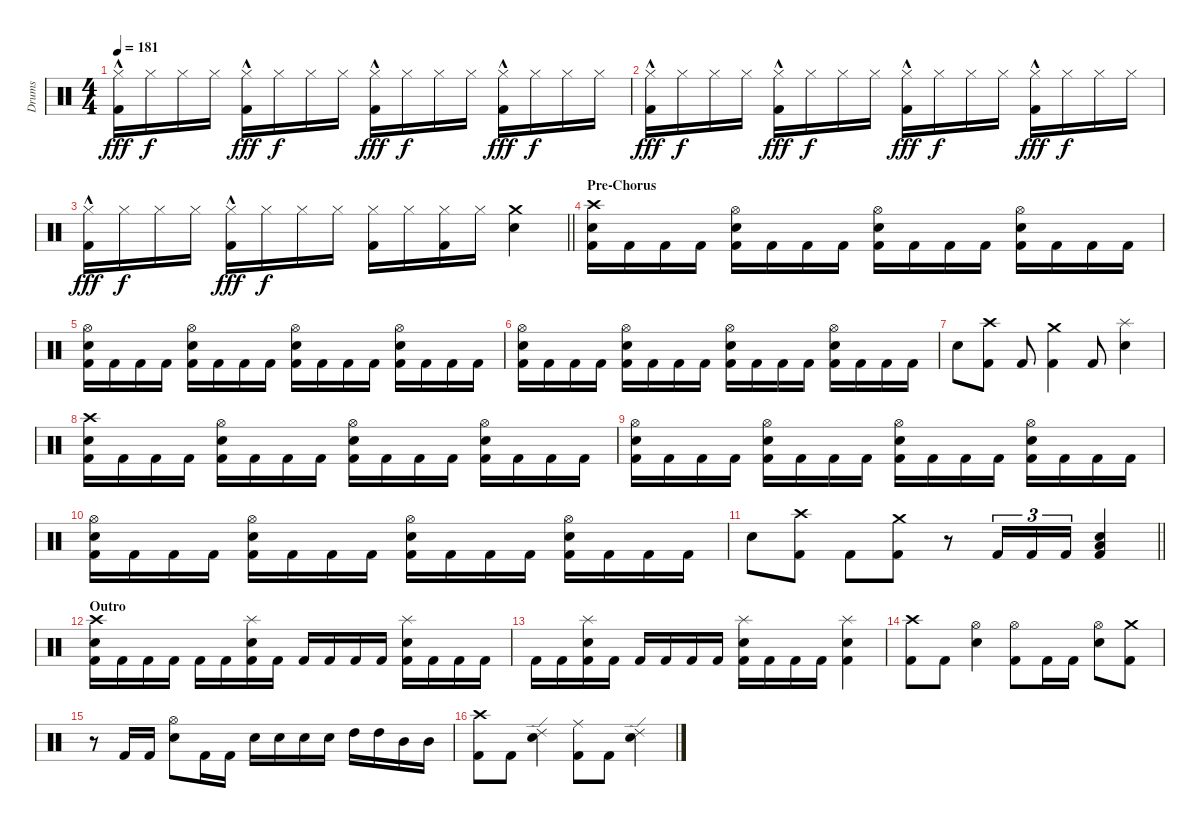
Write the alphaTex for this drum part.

\track ("Drums" "Drums") {instrument percussion}
\staff {score}
\articulation defaults
\ts (4 4)
\tempo 181
\clef neutral
\ks c
("Hi-Hat (closed)"{hac} "Kick (hit) 2").16{dy fff} "Hi-Hat (closed)".16{dy f} "Hi-Hat (closed)".16 "Hi-Hat (closed)".16 ("Hi-Hat (closed)"{hac} "Kick (hit) 2").16{dy fff} "Hi-Hat (closed)".16{dy f} "Hi-Hat (closed)".16 "Hi-Hat (closed)".16 ("Hi-Hat (closed)"{hac} "Kick (hit) 2").16{dy fff} "Hi-Hat (closed)".16{dy f} "Hi-Hat (closed)".16 "Hi-Hat (closed)".16 ("Hi-Hat (closed)"{hac} "Kick (hit) 2").16{dy fff} "Hi-Hat (closed)".16{dy f} "Hi-Hat (closed)".16 "Hi-Hat (closed)".16 |
("Hi-Hat (closed)"{hac} "Kick (hit) 2").16{dy fff} "Hi-Hat (closed)".16{dy f} "Hi-Hat (closed)".16 "Hi-Hat (closed)".16 ("Hi-Hat (closed)"{hac} "Kick (hit) 2").16{dy fff} "Hi-Hat (closed)".16{dy f} "Hi-Hat (closed)".16 "Hi-Hat (closed)".16 ("Hi-Hat (closed)"{hac} "Kick (hit) 2").16{dy fff} "Hi-Hat (closed)".16{dy f} "Hi-Hat (closed)".16 "Hi-Hat (closed)".16 ("Hi-Hat (closed)"{hac} "Kick (hit) 2").16{dy fff} "Hi-Hat (closed)".16{dy f} "Hi-Hat (closed)".16 "Hi-Hat (closed)".16 |
\barLineRight lightlight
("Hi-Hat (closed)"{hac} "Kick (hit) 2").16{dy fff} "Hi-Hat (closed)".16{dy f} "Hi-Hat (closed)".16 "Hi-Hat (closed)".16 ("Hi-Hat (closed)"{hac} "Kick (hit) 2").16{dy fff} "Hi-Hat (closed)".16{dy f} "Hi-Hat (closed)".16 "Hi-Hat (closed)".16 ("Hi-Hat (closed)" "Kick (hit) 2").16 "Hi-Hat (closed)".16 ("Hi-Hat (closed)" "Kick (hit) 2").16 "Hi-Hat (closed)".16 ("Crash medium (hit)" "Snare (hit) 2").4 |
\section ("" "Pre-Chorus")
("Crash high (hit)" "Snare (hit) 2" "Kick (hit) 2").16 "Kick (hit) 2".16 "Kick (hit) 2".16 "Kick (hit) 2".16 ("Hi-Hat (open)" "Snare (hit) 2" "Kick (hit) 2").16 "Kick (hit) 2".16 "Kick (hit) 2".16 "Kick (hit) 2".16 ("Hi-Hat (open)" "Snare (hit) 2" "Kick (hit) 2").16 "Kick (hit) 2".16 "Kick (hit) 2".16 "Kick (hit) 2".16 ("Hi-Hat (open)" "Snare (hit) 2" "Kick (hit) 2").16 "Kick (hit) 2".16 "Kick (hit) 2".16 "Kick (hit) 2".16 |
("Hi-Hat (open)" "Snare (hit) 2" "Kick (hit) 2").16 "Kick (hit) 2".16 "Kick (hit) 2".16 "Kick (hit) 2".16 ("Hi-Hat (open)" "Snare (hit) 2" "Kick (hit) 2").16 "Kick (hit) 2".16 "Kick (hit) 2".16 "Kick (hit) 2".16 ("Hi-Hat (open)" "Snare (hit) 2" "Kick (hit) 2").16 "Kick (hit) 2".16 "Kick (hit) 2".16 "Kick (hit) 2".16 ("Hi-Hat (open)" "Snare (hit) 2" "Kick (hit) 2").16 "Kick (hit) 2".16 "Kick (hit) 2".16 "Kick (hit) 2".16 |
("Hi-Hat (open)" "Snare (hit) 2" "Kick (hit) 2").16 "Kick (hit) 2".16 "Kick (hit) 2".16 "Kick (hit) 2".16 ("Hi-Hat (open)" "Snare (hit) 2" "Kick (hit) 2").16 "Kick (hit) 2".16 "Kick (hit) 2".16 "Kick (hit) 2".16 ("Hi-Hat (open)" "Snare (hit) 2" "Kick (hit) 2").16 "Kick (hit) 2".16 "Kick (hit) 2".16 "Kick (hit) 2".16 ("Hi-Hat (open)" "Snare (hit) 2" "Kick (hit) 2").16 "Kick (hit) 2".16 "Kick (hit) 2".16 "Kick (hit) 2".16 |
"Snare (hit) 2".8 ("Crash high (hit)" "Kick (hit) 2").8 "Kick (hit) 2".8 ("Crash medium (hit)" "Kick (hit) 2").4 "Kick (hit) 2".8 ("Splash (hit)" "Snare (hit) 2").4 |
("Crash high (hit)" "Snare (hit) 2" "Kick (hit) 2").16 "Kick (hit) 2".16 "Kick (hit) 2".16 "Kick (hit) 2".16 ("Hi-Hat (open)" "Snare (hit) 2" "Kick (hit) 2").16 "Kick (hit) 2".16 "Kick (hit) 2".16 "Kick (hit) 2".16 ("Hi-Hat (open)" "Snare (hit) 2" "Kick (hit) 2").16 "Kick (hit) 2".16 "Kick (hit) 2".16 "Kick (hit) 2".16 ("Hi-Hat (open)" "Snare (hit) 2" "Kick (hit) 2").16 "Kick (hit) 2".16 "Kick (hit) 2".16 "Kick (hit) 2".16 |
("Hi-Hat (open)" "Snare (hit) 2" "Kick (hit) 2").16 "Kick (hit) 2".16 "Kick (hit) 2".16 "Kick (hit) 2".16 ("Hi-Hat (open)" "Snare (hit) 2" "Kick (hit) 2").16 "Kick (hit) 2".16 "Kick (hit) 2".16 "Kick (hit) 2".16 ("Hi-Hat (open)" "Snare (hit) 2" "Kick (hit) 2").16 "Kick (hit) 2".16 "Kick (hit) 2".16 "Kick (hit) 2".16 ("Hi-Hat (open)" "Snare (hit) 2" "Kick (hit) 2").16 "Kick (hit) 2".16 "Kick (hit) 2".16 "Kick (hit) 2".16 |
("Hi-Hat (open)" "Snare (hit) 2" "Kick (hit) 2").16 "Kick (hit) 2".16 "Kick (hit) 2".16 "Kick (hit) 2".16 ("Hi-Hat (open)" "Snare (hit) 2" "Kick (hit) 2").16 "Kick (hit) 2".16 "Kick (hit) 2".16 "Kick (hit) 2".16 ("Hi-Hat (open)" "Snare (hit) 2" "Kick (hit) 2").16 "Kick (hit) 2".16 "Kick (hit) 2".16 "Kick (hit) 2".16 ("Hi-Hat (open)" "Snare (hit) 2" "Kick (hit) 2").16 "Kick (hit) 2".16 "Kick (hit) 2".16 "Kick (hit) 2".16 |
\barLineRight lightlight "Snare (hit) 2".8
("Crash high (hit)" "Kick (hit) 2").8 "Kick (hit) 2".8 ("Crash medium (hit)" "Kick (hit) 2").8 r.8 "Kick (hit) 2".16{tu (3 2)} "Kick (hit) 2".16{tu (3 2)} "Kick (hit) 2".16{tu (3 2)} ("Snare (hit) 2" "Low Tom (hit)" "Kick (hit) 2").4 |
\section ("" "Outro")
("Crash high (hit)" "Snare (hit) 2" "Kick (hit) 2").16 "Kick (hit) 2".16 "Kick (hit) 2".16 "Kick (hit) 2".16 "Kick (hit) 2".16 "Kick (hit) 2".16 ("Splash (hit)" "Snare (hit) 2" "Kick (hit) 2").16 "Kick (hit) 2".16 "Kick (hit) 2".16 "Kick (hit) 2".16 "Kick (hit) 2".16 "Kick (hit) 2".16 ("Splash (hit)" "Snare (hit) 2" "Kick (hit) 2").16 "Kick (hit) 2".16 "Kick (hit) 2".16 "Kick (hit) 2".16 |
"Kick (hit) 2".16 "Kick (hit) 2".16 ("Splash (hit)" "Snare (hit) 2" "Kick (hit) 2").16 "Kick (hit) 2".16 "Kick (hit) 2".16 "Kick (hit) 2".16 "Kick (hit) 2".16 "Kick (hit) 2".16 ("Splash (hit)" "Snare (hit) 2" "Kick (hit) 2").16 "Kick (hit) 2".16 "Kick (hit) 2".16 "Kick (hit) 2".16 ("Splash (hit)" "Snare (hit) 2" "Kick (hit) 2").4 |
("Crash high (hit)" "Kick (hit) 2").8 "Kick (hit) 2".8 ("Hi-Hat (open)" "Snare (hit) 2").4 ("Hi-Hat (open)" "Kick (hit) 2").8 "Kick (hit) 2".16 "Kick (hit) 2".16 ("Hi-Hat (open)" "Snare (hit) 2").8 ("Crash medium (hit)" "Kick (hit) 2").8 |
r.8 "Kick (hit) 2".16 "Kick (hit) 2".16 ("Hi-Hat (open)" "Snare (hit) 2").8 "Kick (hit) 2".16 "Kick (hit) 2".16 "Snare (hit) 2".16 "Snare (hit) 2".16 "Snare (hit) 2".16 "Snare (hit) 2".16 "High Tom (hit)".16 "High Tom (hit)".16 "Mid Tom (hit)".16 "Mid Tom (hit)".16 |
("Crash high (hit)" "Kick (hit) 2").8 "Kick (hit) 2".8 ("Ride (edge) 2" "Snare (hit) 2").4 ("Ride (middle)" "Kick (hit) 2").8 "Kick (hit) 2".8 ("Ride (edge) 2" "Snare (hit) 2").4
